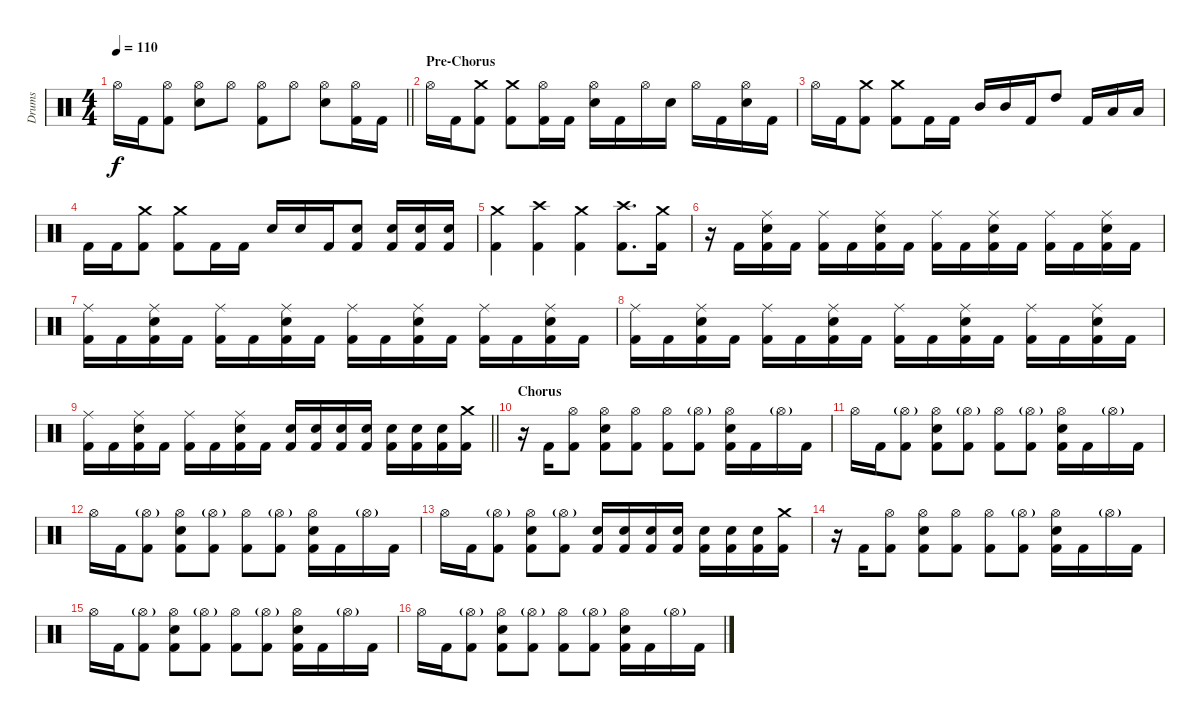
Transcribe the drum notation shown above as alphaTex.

\track ("Drums" "Drums") {instrument percussion}
\staff {score}
\articulation defaults
\ts (4 4)
\tempo 110
\clef neutral
\barLineRight lightlight
\ks c "Hi-Hat (open)".16{dy f} "Kick (hit) 2".16
("Hi-Hat (open)" "Kick (hit) 2").8 ("Hi-Hat (open)" "Snare (hit) 2").8 "Hi-Hat (open)".8 ("Hi-Hat (open)" "Kick (hit) 2").8 "Hi-Hat (open)".8 ("Hi-Hat (open)" "Snare (hit) 2").8 ("Hi-Hat (open)" "Kick (hit) 2").16 "Kick (hit) 2".16 |
\section ("" "Pre-Chorus")
"Hi-Hat (open)".16 "Kick (hit) 2".16 ("Crash medium (hit)" "Kick (hit) 2").8 ("Crash medium (hit)" "Kick (hit) 2").8 ("Hi-Hat (open)" "Kick (hit) 2").16 "Kick (hit) 2".16 ("Hi-Hat (open)" "Snare (hit) 2").16 "Kick (hit) 2".16 "Hi-Hat (open)".16 "Snare (hit) 2".16 "Hi-Hat (open)".16 "Kick (hit) 2".16 ("Hi-Hat (open)" "Snare (hit) 2").16 "Kick (hit) 2".16 |
"Hi-Hat (open)".16 "Kick (hit) 2".16 ("Crash medium (hit)" "Kick (hit) 2").8 ("Crash medium (hit)" "Kick (hit) 2").8 "Kick (hit) 2".16 "Kick (hit) 2".16 "Mid Tom (hit)".16 "Mid Tom (hit)".16 "Kick (hit) 2".16 "High Tom (hit)".8 "Kick (hit) 2".16 "Low Tom (hit)".16 "Low Tom (hit)".16 |
"Kick (hit) 2".16 "Kick (hit) 2".16 ("Crash medium (hit)" "Kick (hit) 2").8 ("Crash medium (hit)" "Kick (hit) 2").8 "Kick (hit) 2".16 "Kick (hit) 2".16 "Snare (hit) 2".16 "Snare (hit) 2".16 "Kick (hit) 2".16 ("Snare (hit) 2" "Kick (hit) 2").8 ("Snare (hit) 2" "Kick (hit) 2").16 ("Snare (hit) 2" "Kick (hit) 2").16 ("Snare (hit) 2" "Kick (hit) 2").16 |
("Crash medium (hit)" "Kick (hit) 2").4 ("Crash high (hit)" "Kick (hit) 2").4 ("Crash medium (hit)" "Kick (hit) 2").4 ("Crash high (hit)" "Kick (hit) 2").8{d} ("Crash medium (hit)" "Kick (hit) 2").16 |
r.16 "Kick (hit) 2".16 ("Ride (middle)" "Snare (hit) 2" "Kick (hit) 2").16 "Kick (hit) 2".16 ("Ride (middle)" "Kick (hit) 2").16 "Kick (hit) 2".16 ("Ride (middle)" "Snare (hit) 2" "Kick (hit) 2").16 "Kick (hit) 2".16 ("Ride (middle)" "Kick (hit) 2").16 "Kick (hit) 2".16 ("Ride (middle)" "Snare (hit) 2" "Kick (hit) 2").16 "Kick (hit) 2".16 ("Ride (middle)" "Kick (hit) 2").16 "Kick (hit) 2".16 ("Ride (middle)" "Snare (hit) 2" "Kick (hit) 2").16 "Kick (hit) 2".16 |
("Ride (middle)" "Kick (hit) 2").16 "Kick (hit) 2".16 ("Ride (middle)" "Snare (hit) 2" "Kick (hit) 2").16 "Kick (hit) 2".16 ("Ride (middle)" "Kick (hit) 2").16 "Kick (hit) 2".16 ("Ride (middle)" "Snare (hit) 2" "Kick (hit) 2").16 "Kick (hit) 2".16 ("Ride (middle)" "Kick (hit) 2").16 "Kick (hit) 2".16 ("Ride (middle)" "Snare (hit) 2" "Kick (hit) 2").16 "Kick (hit) 2".16 ("Ride (middle)" "Kick (hit) 2").16 "Kick (hit) 2".16 ("Ride (middle)" "Snare (hit) 2" "Kick (hit) 2").16 "Kick (hit) 2".16 |
("Ride (middle)" "Kick (hit) 2").16 "Kick (hit) 2".16 ("Ride (middle)" "Snare (hit) 2" "Kick (hit) 2").16 "Kick (hit) 2".16 ("Ride (middle)" "Kick (hit) 2").16 "Kick (hit) 2".16 ("Ride (middle)" "Snare (hit) 2" "Kick (hit) 2").16 "Kick (hit) 2".16 ("Ride (middle)" "Kick (hit) 2").16 "Kick (hit) 2".16 ("Ride (middle)" "Snare (hit) 2" "Kick (hit) 2").16 "Kick (hit) 2".16 ("Ride (middle)" "Kick (hit) 2").16 "Kick (hit) 2".16 ("Ride (middle)" "Snare (hit) 2" "Kick (hit) 2").16 "Kick (hit) 2".16 |
\barLineRight lightlight
("Ride (middle)" "Kick (hit) 2").16 "Kick (hit) 2".16 ("Ride (middle)" "Snare (hit) 2" "Kick (hit) 2").16 "Kick (hit) 2".16 ("Ride (middle)" "Kick (hit) 2").16 "Kick (hit) 2".16 ("Ride (middle)" "Snare (hit) 2" "Kick (hit) 2").16 "Kick (hit) 2".16 ("Snare (hit) 2" "Kick (hit) 2").16 ("Snare (hit) 2" "Kick (hit) 2").16 ("Snare (hit) 2" "Kick (hit) 2").16 ("Snare (hit) 2" "Kick (hit) 2").16 ("Snare (hit) 2" "Kick (hit) 2").16 ("Snare (hit) 2" "Kick (hit) 2").16 ("Snare (hit) 2" "Kick (hit) 2").16 ("Crash medium (hit)" "Kick (hit) 2").16 |
\section ("" "Chorus")
r.16 "Kick (hit) 2".16 ("Hi-Hat (open)" "Kick (hit) 2").8 ("Hi-Hat (open)" "Snare (hit) 2" "Kick (hit) 2").8 ("Hi-Hat (open)" "Kick (hit) 2").8 ("Hi-Hat (open)" "Kick (hit) 2").8 ("Hi-Hat (open)"{g} "Kick (hit) 2").8 ("Hi-Hat (open)" "Snare (hit) 2" "Kick (hit) 2").16 "Kick (hit) 2".16 "Hi-Hat (open)"{g}.16 "Kick (hit) 2".16 |
"Hi-Hat (open)".16 "Kick (hit) 2".16 ("Hi-Hat (open)"{g} "Kick (hit) 2").8 ("Hi-Hat (open)" "Snare (hit) 2" "Kick (hit) 2").8 ("Hi-Hat (open)"{g} "Kick (hit) 2").8 ("Hi-Hat (open)" "Kick (hit) 2").8 ("Hi-Hat (open)"{g} "Kick (hit) 2").8 ("Hi-Hat (open)" "Snare (hit) 2" "Kick (hit) 2").16 "Kick (hit) 2".16 "Hi-Hat (open)"{g}.16 "Kick (hit) 2".16 |
"Hi-Hat (open)".16 "Kick (hit) 2".16 ("Hi-Hat (open)"{g} "Kick (hit) 2").8 ("Hi-Hat (open)" "Snare (hit) 2" "Kick (hit) 2").8 ("Hi-Hat (open)"{g} "Kick (hit) 2").8 ("Hi-Hat (open)" "Kick (hit) 2").8 ("Hi-Hat (open)"{g} "Kick (hit) 2").8 ("Hi-Hat (open)" "Snare (hit) 2" "Kick (hit) 2").16 "Kick (hit) 2".16 "Hi-Hat (open)"{g}.16 "Kick (hit) 2".16 |
"Hi-Hat (open)".16 "Kick (hit) 2".16 ("Hi-Hat (open)"{g} "Kick (hit) 2").8 ("Hi-Hat (open)" "Snare (hit) 2" "Kick (hit) 2").8 ("Hi-Hat (open)"{g} "Kick (hit) 2").8 ("Snare (hit) 2" "Kick (hit) 2").16 ("Snare (hit) 2" "Kick (hit) 2").16 ("Snare (hit) 2" "Kick (hit) 2").16 ("Snare (hit) 2" "Kick (hit) 2").16 ("Snare (hit) 2" "Kick (hit) 2").16 ("Snare (hit) 2" "Kick (hit) 2").16 ("Snare (hit) 2" "Kick (hit) 2").16 ("Crash medium (hit)" "Kick (hit) 2").16 |
r.16 "Kick (hit) 2".16 ("Hi-Hat (open)" "Kick (hit) 2").8 ("Hi-Hat (open)" "Snare (hit) 2" "Kick (hit) 2").8 ("Hi-Hat (open)" "Kick (hit) 2").8 ("Hi-Hat (open)" "Kick (hit) 2").8 ("Hi-Hat (open)"{g} "Kick (hit) 2").8 ("Hi-Hat (open)" "Snare (hit) 2" "Kick (hit) 2").16 "Kick (hit) 2".16 "Hi-Hat (open)"{g}.16 "Kick (hit) 2".16 |
"Hi-Hat (open)".16 "Kick (hit) 2".16 ("Hi-Hat (open)"{g} "Kick (hit) 2").8 ("Hi-Hat (open)" "Snare (hit) 2" "Kick (hit) 2").8 ("Hi-Hat (open)"{g} "Kick (hit) 2").8 ("Hi-Hat (open)" "Kick (hit) 2").8 ("Hi-Hat (open)"{g} "Kick (hit) 2").8 ("Hi-Hat (open)" "Snare (hit) 2" "Kick (hit) 2").16 "Kick (hit) 2".16 "Hi-Hat (open)"{g}.16 "Kick (hit) 2".16 |
"Hi-Hat (open)".16 "Kick (hit) 2".16 ("Hi-Hat (open)"{g} "Kick (hit) 2").8 ("Hi-Hat (open)" "Snare (hit) 2" "Kick (hit) 2").8 ("Hi-Hat (open)"{g} "Kick (hit) 2").8 ("Hi-Hat (open)" "Kick (hit) 2").8 ("Hi-Hat (open)"{g} "Kick (hit) 2").8 ("Hi-Hat (open)" "Snare (hit) 2" "Kick (hit) 2").16 "Kick (hit) 2".16 "Hi-Hat (open)"{g}.16 "Kick (hit) 2".16
